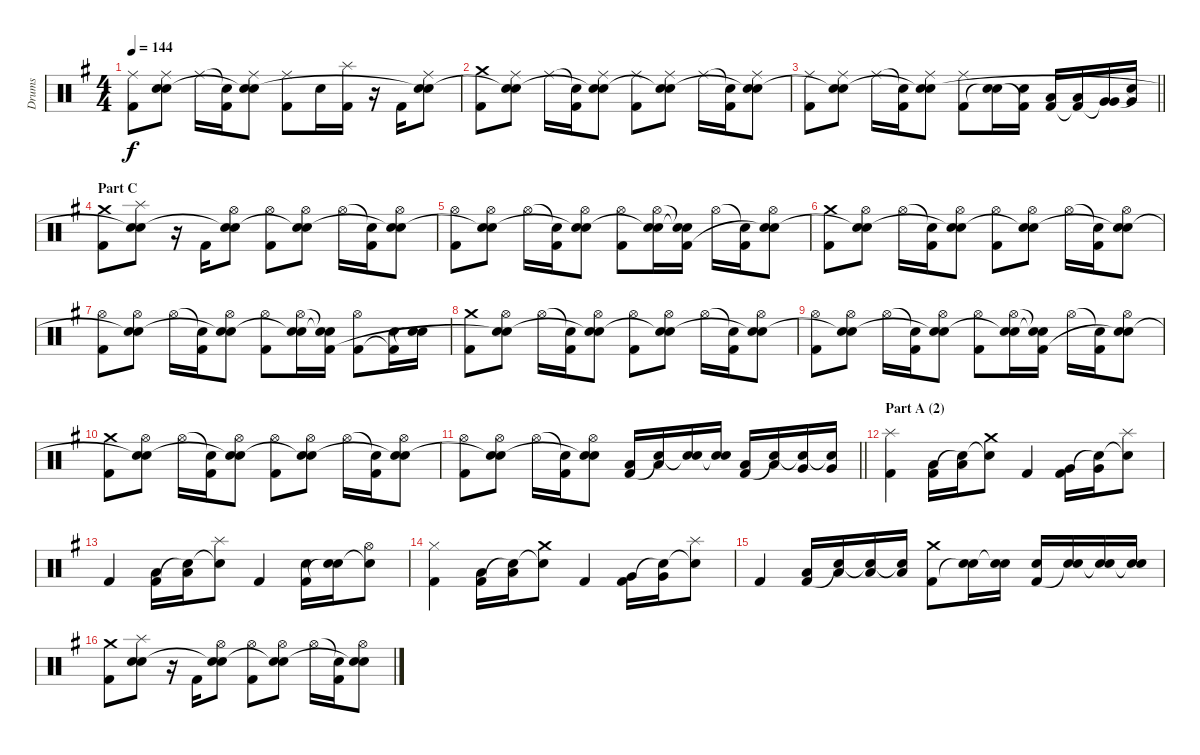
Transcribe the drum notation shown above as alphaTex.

\track ("Drums" "Drums") {instrument percussion}
\staff {score}
\articulation defaults
\ts (4 4)
\tempo 144
\clef neutral
\ks g
("Ride (middle)" "Kick (hit) 2").8{dy f} ("Ride (middle)" "Electric Snare (hit)" "Snare (hit)"{t}).8 "Ride (middle)".16 ("Snare (hit)"{t} "Kick (hit) 2").16 ("Ride (middle)" "Electric Snare (hit)" "Snare (hit)"{t}).8 ("Ride (middle)" "Kick (hit) 2").8 "Electric Snare (hit)".16 ("Splash (hit)" "Kick (hit) 2").16 r.16 "Kick (hit) 2".16 ("Ride (middle)" "Electric Snare (hit)" "Snare (hit)"{t}).8 |
("Crash medium (hit)" "Kick (hit) 2").8 ("Ride (middle)" "Electric Snare (hit)" "Snare (hit)"{t}).8 "Ride (middle)".16 ("Snare (hit)"{t} "Kick (hit) 2").16 ("Ride (middle)" "Electric Snare (hit)" "Snare (hit)"{t}).8 ("Ride (middle)" "Kick (hit) 2").8 ("Ride (middle)" "Electric Snare (hit)" "Snare (hit)"{t}).8 "Ride (middle)".16 ("Snare (hit)"{t} "Kick (hit) 2").16 ("Ride (middle)" "Electric Snare (hit)" "Snare (hit)"{t}).8 |
\barLineRight lightlight
("Ride (middle)" "Kick (hit) 2").8 ("Ride (middle)" "Electric Snare (hit)" "Snare (hit)"{t}).8 "Ride (middle)".16 ("Snare (hit)"{t} "Kick (hit) 2").16 ("Ride (middle)" "Electric Snare (hit)" "Snare (hit)"{t}).8 ("Ride (middle)" "Kick (hit) 2").8 ("Electric Snare (hit)" "Snare (hit)"{t}).16 ("Electric Snare (hit)" "Kick (hit) 2"{t}).16 ("Low Tom (hit)" "Kick (hit) 2").16 ("Low Tom (hit)" "Kick (hit) 2"{t}).16 ("Very Low Tom (hit)" "Very Low Tom (hit)"{t}).16 ("Very Low Tom (hit)" "Snare (hit)"{t}).16 |
\section ("" "Part C")
("Crash medium (hit)" "Kick (hit) 2").8 ("Splash (hit)" "Electric Snare (hit)" "Snare (hit)"{t}).8 r.16 "Kick (hit) 2".16 ("Hi-Hat (open)" "Electric Snare (hit)" "Snare (hit)"{t}).8 ("Hi-Hat (open)" "Kick (hit) 2").8 ("Hi-Hat (open)" "Electric Snare (hit)" "Snare (hit)"{t}).8 "Hi-Hat (open)".16 ("Snare (hit)"{t} "Kick (hit) 2").16 ("Hi-Hat (open)" "Electric Snare (hit)" "Snare (hit)"{t}).8 |
("Hi-Hat (open)" "Kick (hit) 2").8 ("Hi-Hat (open)" "Electric Snare (hit)" "Snare (hit)"{t}).8 "Hi-Hat (open)".16 ("Snare (hit)"{t} "Kick (hit) 2").16 ("Hi-Hat (open)" "Electric Snare (hit)" "Snare (hit)"{t}).8 ("Hi-Hat (open)" "Kick (hit) 2").8 ("Hi-Hat (open)" "Electric Snare (hit)" "Snare (hit)"{t}).16 ("Snare (hit)"{t} "Snare (hit)"{t} "Kick (hit) 2").16 "Hi-Hat (open)".16 ("Snare (hit)"{t} "Kick (hit) 2").16 ("Hi-Hat (open)" "Electric Snare (hit)" "Snare (hit)"{t}).8 |
("Crash medium (hit)" "Kick (hit) 2").8 ("Hi-Hat (open)" "Electric Snare (hit)" "Snare (hit)"{t}).8 "Hi-Hat (open)".16 ("Snare (hit)"{t} "Kick (hit) 2").16 ("Hi-Hat (open)" "Electric Snare (hit)" "Snare (hit)"{t}).8 ("Hi-Hat (open)" "Kick (hit) 2").8 ("Hi-Hat (open)" "Electric Snare (hit)" "Snare (hit)"{t}).8 "Hi-Hat (open)".16 ("Snare (hit)"{t} "Kick (hit) 2").16 ("Hi-Hat (open)" "Electric Snare (hit)" "Snare (hit)"{t}).8 |
("Hi-Hat (open)" "Kick (hit) 2").8 ("Hi-Hat (open)" "Electric Snare (hit)" "Snare (hit)"{t}).8 "Hi-Hat (open)".16 ("Snare (hit)"{t} "Kick (hit) 2").16 ("Hi-Hat (open)" "Electric Snare (hit)" "Snare (hit)"{t}).8 ("Hi-Hat (open)" "Kick (hit) 2").8 ("Hi-Hat (open)" "Electric Snare (hit)" "Snare (hit)"{t}).16 ("Snare (hit)"{t} "Snare (hit)"{t} "Kick (hit) 2").16 ("Hi-Hat (open)" "Kick (hit) 2").8 ("Electric Snare (hit)" "Kick (hit) 2"{t}).16 ("Electric Snare (hit)" "Snare (hit)"{t}).16 |
("Crash medium (hit)" "Kick (hit) 2").8 ("Hi-Hat (open)" "Electric Snare (hit)" "Snare (hit)"{t}).8 "Hi-Hat (open)".16 ("Snare (hit)"{t} "Kick (hit) 2").16 ("Hi-Hat (open)" "Electric Snare (hit)" "Snare (hit)"{t}).8 ("Hi-Hat (open)" "Kick (hit) 2").8 ("Hi-Hat (open)" "Electric Snare (hit)" "Snare (hit)"{t}).8 "Hi-Hat (open)".16 ("Snare (hit)"{t} "Kick (hit) 2").16 ("Hi-Hat (open)" "Electric Snare (hit)" "Snare (hit)"{t}).8 |
("Hi-Hat (open)" "Kick (hit) 2").8 ("Hi-Hat (open)" "Electric Snare (hit)" "Snare (hit)"{t}).8 "Hi-Hat (open)".16 ("Snare (hit)"{t} "Kick (hit) 2").16 ("Hi-Hat (open)" "Electric Snare (hit)" "Snare (hit)"{t}).8 ("Hi-Hat (open)" "Kick (hit) 2").8 ("Hi-Hat (open)" "Electric Snare (hit)" "Snare (hit)"{t}).16 ("Snare (hit)"{t} "Snare (hit)"{t} "Kick (hit) 2").16 "Hi-Hat (open)".16 ("Snare (hit)"{t} "Kick (hit) 2").16 ("Hi-Hat (open)" "Electric Snare (hit)" "Snare (hit)"{t}).8 |
("Crash medium (hit)" "Kick (hit) 2").8 ("Hi-Hat (open)" "Electric Snare (hit)" "Snare (hit)"{t}).8 "Hi-Hat (open)".16 ("Snare (hit)"{t} "Kick (hit) 2").16 ("Hi-Hat (open)" "Electric Snare (hit)" "Snare (hit)"{t}).8 ("Hi-Hat (open)" "Kick (hit) 2").8 ("Hi-Hat (open)" "Electric Snare (hit)" "Snare (hit)"{t}).8 "Hi-Hat (open)".16 ("Snare (hit)"{t} "Kick (hit) 2").16 ("Hi-Hat (open)" "Electric Snare (hit)" "Snare (hit)"{t}).8 |
\barLineRight lightlight
("Hi-Hat (open)" "Kick (hit) 2").8 ("Hi-Hat (open)" "Electric Snare (hit)" "Snare (hit)"{t}).8 "Hi-Hat (open)".16 ("Snare (hit)"{t} "Kick (hit) 2").16 ("Hi-Hat (open)" "Electric Snare (hit)" "Snare (hit)"{t}).8 ("Low Tom (hit)" "Kick (hit) 2").16 ("Low Tom (hit)" "Snare (hit)"{t}).16 ("Electric Snare (hit)" "Snare (hit)"{t}).16 ("Electric Snare (hit)" "Snare (hit)"{t}).16 ("Low Tom (hit)" "Kick (hit) 2").16 ("Low Tom (hit)" "Snare (hit)"{t}).16 ("Very Low Tom (hit)" "Snare (hit)"{t}).16 ("Very Low Tom (hit)" "Snare (hit)"{t}).16 |
\section ("" "Part A (2)")
("Splash (hit)" "Kick (hit) 2").4 ("Low Tom (hit)" "Kick (hit) 2").16 ("Low Tom (hit)" "Snare (hit)"{t}).16 ("Crash medium (hit)" "Snare (hit)"{t}).8 "Kick (hit) 2".4 ("Very Low Tom (hit)" "Kick (hit) 2").16 ("Very Low Tom (hit)" "Snare (hit)"{t}).16 ("Splash (hit)" "Snare (hit)"{t}).8 |
"Kick (hit) 2".4 ("Low Floor Tom (hit)" "Kick (hit) 2").16 ("Low Floor Tom (hit)" "Snare (hit)"{t}).16 ("Splash (hit)" "Snare (hit)"{t}).8 "Kick (hit) 2".4 ("Electric Snare (hit)" "Kick (hit) 2").16 ("Electric Snare (hit)" "Snare (hit)"{t}).16 ("Hi-Hat (open)" "Snare (hit)"{t}).8 |
("Hi-Hat (closed)" "Kick (hit) 2").4 ("Low Tom (hit)" "Kick (hit) 2").16 ("Low Tom (hit)" "Snare (hit)"{t}).16 ("Crash medium (hit)" "Snare (hit)"{t}).8 "Kick (hit) 2".4 ("Very Low Tom (hit)" "Kick (hit) 2").16 ("Very Low Tom (hit)" "Snare (hit)"{t}).16 ("Splash (hit)" "Snare (hit)"{t}).8 |
"Kick (hit) 2".4 ("Low Floor Tom (hit)" "Kick (hit) 2").16 ("Low Floor Tom (hit)" "Snare (hit)"{t}).16 ("Low Floor Tom (hit)" "Snare (hit)"{t}).16 ("Low Floor Tom (hit)" "Snare (hit)"{t}).16 ("Crash medium (hit)" "Kick (hit) 2").8 ("Electric Snare (hit)" "Snare (hit)"{t}).16 ("Electric Snare (hit)" "Snare (hit)"{t}).16 ("Electric Snare (hit)" "Kick (hit) 2").16 ("Electric Snare (hit)" "Snare (hit)"{t}).16 ("Electric Snare (hit)" "Snare (hit)"{t}).16 ("Electric Snare (hit)" "Snare (hit)"{t}).16 |
("Crash medium (hit)" "Kick (hit) 2").8 ("Splash (hit)" "Electric Snare (hit)" "Snare (hit)").8 r.16 "Kick (hit) 2".16 ("Hi-Hat (open)" "Electric Snare (hit)" "Snare (hit)"{t}).8 ("Hi-Hat (open)" "Kick (hit) 2").8 ("Hi-Hat (open)" "Electric Snare (hit)" "Snare (hit)"{t}).8 "Hi-Hat (open)".16 ("Snare (hit)"{t} "Kick (hit) 2").16 ("Hi-Hat (open)" "Electric Snare (hit)" "Snare (hit)"{t}).8
